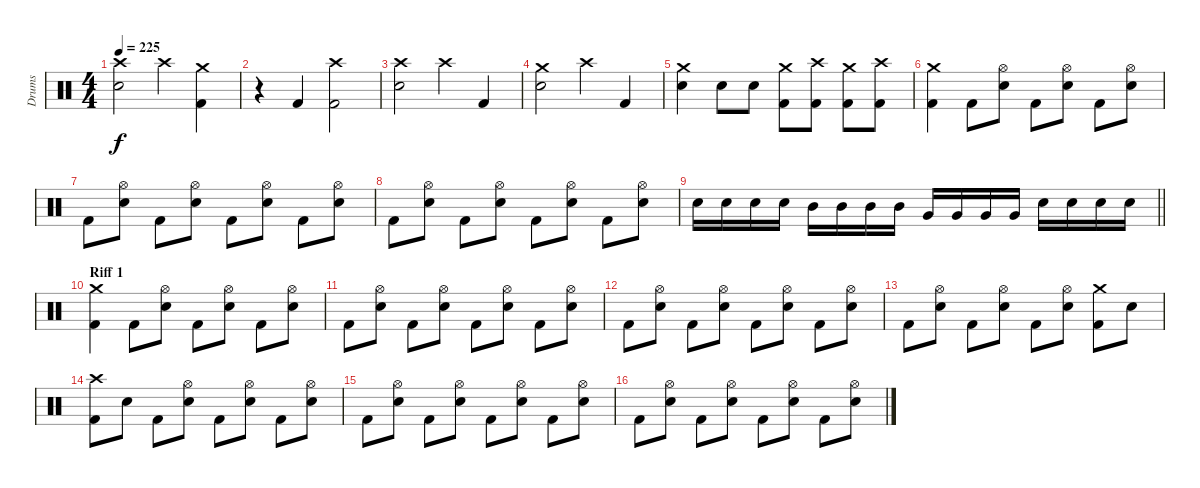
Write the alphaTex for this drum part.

\track ("Drums" "Drums") {instrument percussion}
\staff {score}
\articulation defaults
\ts (4 4)
\tempo 225
\clef neutral
\ks c
("Crash high (hit)" "Electric Snare (hit)").2{dy f} "Crash high (hit)".4 ("Kick (hit) 2" "Crash medium (hit)").4 |
r.4 "Kick (hit) 2".4 ("Crash high (hit)" "Kick (hit) 2").2 |
("Electric Snare (hit)" "Crash high (hit)").2 "Crash high (hit)".4 "Kick (hit) 2".4 |
("Electric Snare (hit)" "Crash medium (hit)").2 "Crash high (hit)".4 "Kick (hit) 2".4 |
("Electric Snare (hit)" "Crash medium (hit)").4 "Electric Snare (hit)".8 "Electric Snare (hit)".8 ("Crash medium (hit)" "Kick (hit) 2").8 ("Crash high (hit)" "Kick (hit) 2").8 ("Crash medium (hit)" "Kick (hit) 2").8 ("Crash high (hit)" "Kick (hit) 2").8 |
("Crash medium (hit)" "Kick (hit) 2").4 "Kick (hit) 2".8 ("Hi-Hat (open)" "Electric Snare (hit)").8 "Kick (hit) 2".8 ("Hi-Hat (open)" "Electric Snare (hit)").8 "Kick (hit) 2".8 ("Hi-Hat (open)" "Electric Snare (hit)").8 |
"Kick (hit) 2".8 ("Hi-Hat (open)" "Electric Snare (hit)").8 "Kick (hit) 2".8 ("Hi-Hat (open)" "Electric Snare (hit)").8 "Kick (hit) 2".8 ("Hi-Hat (open)" "Electric Snare (hit)").8 "Kick (hit) 2".8 ("Hi-Hat (open)" "Electric Snare (hit)").8 |
"Kick (hit) 2".8 ("Hi-Hat (open)" "Electric Snare (hit)").8 "Kick (hit) 2".8 ("Hi-Hat (open)" "Electric Snare (hit)").8 "Kick (hit) 2".8 ("Hi-Hat (open)" "Electric Snare (hit)").8 "Kick (hit) 2".8 ("Hi-Hat (open)" "Electric Snare (hit)").8 |
\barLineRight lightlight "Electric Snare (hit)".16 "Electric Snare (hit)".16 "Electric Snare (hit)".16 "Electric Snare (hit)".16 "Mid Tom (hit)".16 "Mid Tom (hit)".16 "Mid Tom (hit)".16 "Mid Tom (hit)".16 "Very Low Tom (hit)".16 "Very Low Tom (hit)".16 "Very Low Tom (hit)".16 "Very Low Tom (hit)".16 "Electric Snare (hit)".16 "Electric Snare (hit)".16 "Electric Snare (hit)".16 "Electric Snare (hit)".16
|
\section ("" "Riff 1")
("Crash medium (hit)" "Kick (hit) 2").4 "Kick (hit) 2".8 ("Hi-Hat (open)" "Electric Snare (hit)").8 "Kick (hit) 2".8 ("Hi-Hat (open)" "Electric Snare (hit)").8 "Kick (hit) 2".8 ("Hi-Hat (open)" "Electric Snare (hit)").8 |
"Kick (hit) 2".8 ("Hi-Hat (open)" "Electric Snare (hit)").8 "Kick (hit) 2".8 ("Hi-Hat (open)" "Electric Snare (hit)").8 "Kick (hit) 2".8 ("Hi-Hat (open)" "Electric Snare (hit)").8 "Kick (hit) 2".8 ("Hi-Hat (open)" "Electric Snare (hit)").8 |
"Kick (hit) 2".8 ("Hi-Hat (open)" "Electric Snare (hit)").8 "Kick (hit) 2".8 ("Hi-Hat (open)" "Electric Snare (hit)").8 "Kick (hit) 2".8 ("Hi-Hat (open)" "Electric Snare (hit)").8 "Kick (hit) 2".8 ("Hi-Hat (open)" "Electric Snare (hit)").8 |
"Kick (hit) 2".8 ("Hi-Hat (open)" "Electric Snare (hit)").8 "Kick (hit) 2".8 ("Hi-Hat (open)" "Electric Snare (hit)").8 "Kick (hit) 2".8 ("Hi-Hat (open)" "Electric Snare (hit)").8 ("Crash medium (hit)" "Kick (hit) 2").8 "Electric Snare (hit)".8 |
("Crash high (hit)" "Kick (hit) 2").8 "Electric Snare (hit)".8 "Kick (hit) 2".8 ("Hi-Hat (open)" "Electric Snare (hit)").8 "Kick (hit) 2".8 ("Hi-Hat (open)" "Electric Snare (hit)").8 "Kick (hit) 2".8 ("Hi-Hat (open)" "Electric Snare (hit)").8 |
"Kick (hit) 2".8 ("Hi-Hat (open)" "Electric Snare (hit)").8 "Kick (hit) 2".8 ("Hi-Hat (open)" "Electric Snare (hit)").8 "Kick (hit) 2".8 ("Hi-Hat (open)" "Electric Snare (hit)").8 "Kick (hit) 2".8 ("Hi-Hat (open)" "Electric Snare (hit)").8 |
"Kick (hit) 2".8 ("Hi-Hat (open)" "Electric Snare (hit)").8 "Kick (hit) 2".8 ("Hi-Hat (open)" "Electric Snare (hit)").8 "Kick (hit) 2".8 ("Hi-Hat (open)" "Electric Snare (hit)").8 "Kick (hit) 2".8 ("Hi-Hat (open)" "Electric Snare (hit)").8
